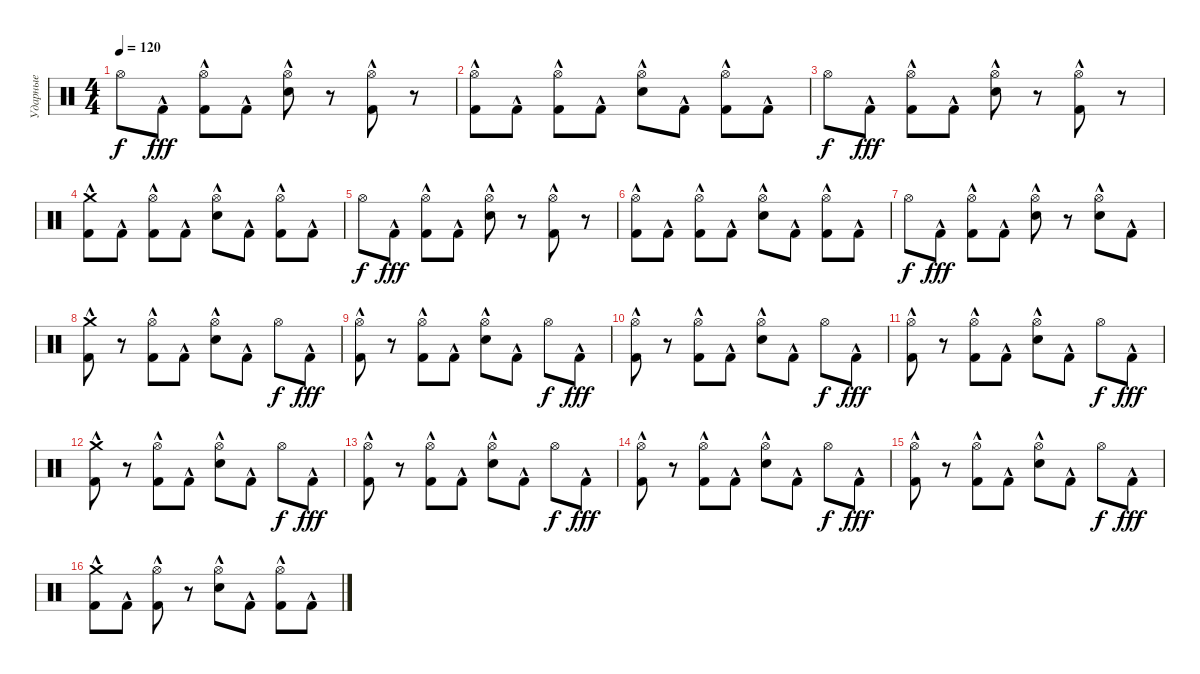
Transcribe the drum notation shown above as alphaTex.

\track ("Ударные" "Ударные") {instrument percussion}
\staff
\articulation defaults
\ts (4 4)
\tempo 120
\clef neutral
\ks c "Hi-Hat (open)".8{dy f} "Kick (hit) 2"{hac}.8{dy fff}
("Hi-Hat (open)" "Kick (hit) 2"{hac}).8 "Kick (hit) 2"{hac}.8 ("Hi-Hat (open)" "Snare (hit) 2"{hac}).8 r.8 ("Hi-Hat (open)" "Kick (hit) 2"{hac}).8 r.8 |
("Hi-Hat (open)" "Kick (hit) 2"{hac}).8 "Kick (hit) 2"{hac}.8 ("Hi-Hat (open)" "Kick (hit) 2"{hac}).8 "Kick (hit) 2"{hac}.8 ("Hi-Hat (open)" "Snare (hit) 2"{hac}).8 "Kick (hit) 2"{hac}.8 ("Hi-Hat (open)" "Kick (hit) 2"{hac}).8 "Kick (hit) 2"{hac}.8 |
"Hi-Hat (open)".8{dy f} "Kick (hit) 2"{hac}.8{dy fff} ("Hi-Hat (open)" "Kick (hit) 2"{hac}).8 "Kick (hit) 2"{hac}.8 ("Hi-Hat (open)" "Snare (hit) 2"{hac}).8 r.8 ("Hi-Hat (open)" "Kick (hit) 2"{hac}).8 r.8 |
("Crash medium (hit)" "Kick (hit) 2"{hac}).8 "Kick (hit) 2"{hac}.8 ("Hi-Hat (open)" "Kick (hit) 2"{hac}).8 "Kick (hit) 2"{hac}.8 ("Hi-Hat (open)" "Snare (hit) 2"{hac}).8 "Kick (hit) 2"{hac}.8 ("Hi-Hat (open)" "Kick (hit) 2"{hac}).8 "Kick (hit) 2"{hac}.8 |
"Hi-Hat (open)".8{dy f} "Kick (hit) 2"{hac}.8{dy fff} ("Hi-Hat (open)" "Kick (hit) 2"{hac}).8 "Kick (hit) 2"{hac}.8 ("Hi-Hat (open)" "Snare (hit) 2"{hac}).8 r.8 ("Hi-Hat (open)" "Kick (hit) 2"{hac}).8 r.8 |
("Hi-Hat (open)" "Kick (hit) 2"{hac}).8 "Kick (hit) 2"{hac}.8 ("Hi-Hat (open)" "Kick (hit) 2"{hac}).8 "Kick (hit) 2"{hac}.8 ("Hi-Hat (open)" "Snare (hit) 2"{hac}).8 "Kick (hit) 2"{hac}.8 ("Hi-Hat (open)" "Kick (hit) 2"{hac}).8 "Kick (hit) 2"{hac}.8 |
"Hi-Hat (open)".8{dy f} "Kick (hit) 2"{hac}.8{dy fff} ("Hi-Hat (open)" "Kick (hit) 2"{hac}).8 "Kick (hit) 2"{hac}.8 ("Hi-Hat (open)" "Snare (hit) 2"{hac}).8 r.8 ("Hi-Hat (open)" "Snare (hit) 2"{hac}).8 "Kick (hit) 2"{hac}.8 |
("Crash medium (hit)" "Kick (hit) 2"{hac}).8 r.8 ("Hi-Hat (open)" "Kick (hit) 2"{hac}).8 "Kick (hit) 2"{hac}.8 ("Hi-Hat (open)" "Snare (hit) 2"{hac}).8 "Kick (hit) 2"{hac}.8 "Hi-Hat (open)".8{dy f} "Kick (hit) 2"{hac}.8{dy fff} |
("Hi-Hat (open)" "Kick (hit) 2"{hac}).8 r.8 ("Hi-Hat (open)" "Kick (hit) 2"{hac}).8 "Kick (hit) 2"{hac}.8 ("Hi-Hat (open)" "Snare (hit) 2"{hac}).8 "Kick (hit) 2"{hac}.8 "Hi-Hat (open)".8{dy f} "Kick (hit) 2"{hac}.8{dy fff} |
("Hi-Hat (open)" "Kick (hit) 2"{hac}).8 r.8 ("Hi-Hat (open)" "Kick (hit) 2"{hac}).8 "Kick (hit) 2"{hac}.8 ("Hi-Hat (open)" "Snare (hit) 2"{hac}).8 "Kick (hit) 2"{hac}.8 "Hi-Hat (open)".8{dy f} "Kick (hit) 2"{hac}.8{dy fff} |
("Hi-Hat (open)" "Kick (hit) 2"{hac}).8 r.8 ("Hi-Hat (open)" "Kick (hit) 2"{hac}).8 "Kick (hit) 2"{hac}.8 ("Hi-Hat (open)" "Snare (hit) 2"{hac}).8 "Kick (hit) 2"{hac}.8 "Hi-Hat (open)".8{dy f} "Kick (hit) 2"{hac}.8{dy fff} |
("Crash medium (hit)" "Kick (hit) 2"{hac}).8 r.8 ("Hi-Hat (open)" "Kick (hit) 2"{hac}).8 "Kick (hit) 2"{hac}.8 ("Hi-Hat (open)" "Snare (hit) 2"{hac}).8 "Kick (hit) 2"{hac}.8 "Hi-Hat (open)".8{dy f} "Kick (hit) 2"{hac}.8{dy fff} |
("Hi-Hat (open)" "Kick (hit) 2"{hac}).8 r.8 ("Hi-Hat (open)" "Kick (hit) 2"{hac}).8 "Kick (hit) 2"{hac}.8 ("Hi-Hat (open)" "Snare (hit) 2"{hac}).8 "Kick (hit) 2"{hac}.8 "Hi-Hat (open)".8{dy f} "Kick (hit) 2"{hac}.8{dy fff} |
("Hi-Hat (open)" "Kick (hit) 2"{hac}).8 r.8 ("Hi-Hat (open)" "Kick (hit) 2"{hac}).8 "Kick (hit) 2"{hac}.8 ("Hi-Hat (open)" "Snare (hit) 2"{hac}).8 "Kick (hit) 2"{hac}.8 "Hi-Hat (open)".8{dy f} "Kick (hit) 2"{hac}.8{dy fff} |
("Hi-Hat (open)" "Kick (hit) 2"{hac}).8 r.8 ("Hi-Hat (open)" "Kick (hit) 2"{hac}).8 "Kick (hit) 2"{hac}.8 ("Hi-Hat (open)" "Snare (hit) 2"{hac}).8 "Kick (hit) 2"{hac}.8 "Hi-Hat (open)".8{dy f} "Kick (hit) 2"{hac}.8{dy fff} |
("Crash medium (hit)" "Kick (hit) 2"{hac}).8 "Kick (hit) 2"{hac}.8 ("Hi-Hat (open)" "Kick (hit) 2"{hac}).8 r.8 ("Hi-Hat (open)" "Snare (hit) 2"{hac}).8 "Kick (hit) 2"{hac}.8 ("Hi-Hat (open)" "Kick (hit) 2"{hac}).8 "Kick (hit) 2"{hac}.8
